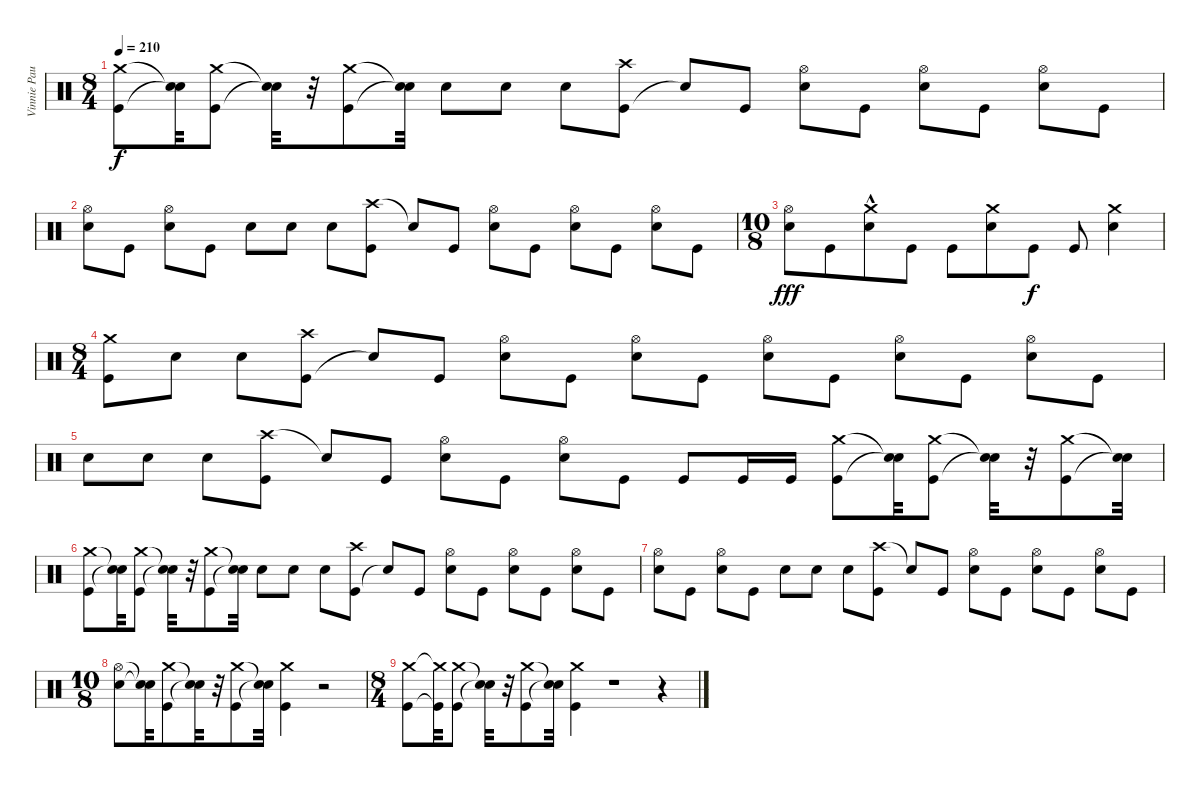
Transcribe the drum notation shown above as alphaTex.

\track ("Vinnie Paul (Drums)" "Vinnie Pau") {instrument percussion}
\staff {score}
\articulation defaults
\ts (8 4)
\tempo 210
\clef neutral
\ks c
("Kick (hit)" "Crash medium (hit)").8{dy f} ("Snare (hit)"{t} "Snare (hit)"{t}).32 ("Kick (hit)" "Crash medium (hit)").8 ("Snare (hit)"{t} "Snare (hit)"{t}).32 r.32 ("Kick (hit)" "Crash medium (hit)").8 ("Snare (hit)"{t} "Snare (hit)"{t}).32 "Electric Snare (hit)".8 "Electric Snare (hit)".8 "Electric Snare (hit)".8 ("Kick (hit)" "Crash high (hit)").8 "Snare (hit)"{t}.8 "Kick (hit)".8 ("Hi-Hat (open)" "Electric Snare (hit)").8 "Kick (hit)".8 ("Hi-Hat (open)" "Electric Snare (hit)").8 "Kick (hit)".8 ("Hi-Hat (open)" "Electric Snare (hit)").8 "Kick (hit)".8 |
("Hi-Hat (open)" "Electric Snare (hit)").8 "Kick (hit)".8 ("Hi-Hat (open)" "Electric Snare (hit)").8 "Kick (hit)".8 "Electric Snare (hit)".8 "Electric Snare (hit)".8 "Electric Snare (hit)".8 ("Crash high (hit)" "Kick (hit)").8 "Snare (hit)"{t}.8 "Kick (hit)".8 ("Hi-Hat (open)" "Electric Snare (hit)").8 "Kick (hit)".8 ("Hi-Hat (open)" "Electric Snare (hit)").8 "Kick (hit)".8 ("Hi-Hat (open)" "Electric Snare (hit)").8 "Kick (hit)".8 |
\ts (10 8)
("Hi-Hat (open)" "Electric Snare (hit)").8{dy fff} "Kick (hit)".8 ("Crash medium (hit)"{hac} "Electric Snare (hit)").8 "Kick (hit)".8 "Kick (hit)".8 ("Crash medium (hit)" "Electric Snare (hit)").8 "Kick (hit)".8{dy f} "Kick (hit)".8 ("Crash medium (hit)" "Electric Snare (hit)").4 |
\ts (8 4)
("Kick (hit)" "Crash medium (hit)").8 "Electric Snare (hit)".8 "Electric Snare (hit)".8 ("Kick (hit)" "Crash high (hit)").8 "Snare (hit)"{t}.8 "Kick (hit)".8 ("Hi-Hat (open)" "Electric Snare (hit)").8 "Kick (hit)".8 ("Hi-Hat (open)" "Electric Snare (hit)").8 "Kick (hit)".8 ("Hi-Hat (open)" "Electric Snare (hit)").8 "Kick (hit)".8 ("Hi-Hat (open)" "Electric Snare (hit)").8 "Kick (hit)".8 ("Hi-Hat (open)" "Electric Snare (hit)").8 "Kick (hit)".8 |
"Electric Snare (hit)".8 "Electric Snare (hit)".8 "Electric Snare (hit)".8 ("Crash high (hit)" "Kick (hit)").8 "Snare (hit)"{t}.8 "Kick (hit)".8 ("Hi-Hat (open)" "Electric Snare (hit)").8 "Kick (hit)".8 ("Hi-Hat (open)" "Electric Snare (hit)").8 "Kick (hit)".8 "Kick (hit)".8 "Kick (hit)".16 "Kick (hit)".16 ("Crash medium (hit)" "Kick (hit)").8 ("Snare (hit)"{t} "Snare (hit)"{t}).32 ("Crash medium (hit)" "Kick (hit)").8 ("Snare (hit)"{t} "Snare (hit)"{t}).32 r.32 ("Crash medium (hit)" "Kick (hit)").8 ("Snare (hit)"{t} "Snare (hit)"{t}).32 |
("Kick (hit)" "Crash medium (hit)").8 ("Snare (hit)"{t} "Snare (hit)"{t}).32 ("Kick (hit)" "Crash medium (hit)").8 ("Snare (hit)"{t} "Snare (hit)"{t}).32 r.32 ("Kick (hit)" "Crash medium (hit)").8 ("Snare (hit)"{t} "Snare (hit)"{t}).32 "Electric Snare (hit)".8 "Electric Snare (hit)".8 "Electric Snare (hit)".8 ("Kick (hit)" "Crash high (hit)").8 "Snare (hit)"{t}.8 "Kick (hit)".8 ("Hi-Hat (open)" "Electric Snare (hit)").8 "Kick (hit)".8 ("Hi-Hat (open)" "Electric Snare (hit)").8 "Kick (hit)".8 ("Hi-Hat (open)" "Electric Snare (hit)").8 "Kick (hit)".8 |
("Hi-Hat (open)" "Electric Snare (hit)").8 "Kick (hit)".8 ("Hi-Hat (open)" "Electric Snare (hit)").8 "Kick (hit)".8 "Electric Snare (hit)".8 "Electric Snare (hit)".8 "Electric Snare (hit)".8 ("Crash high (hit)" "Kick (hit)").8 "Snare (hit)"{t}.8 "Kick (hit)".8 ("Hi-Hat (open)" "Electric Snare (hit)").8 "Kick (hit)".8 ("Hi-Hat (open)" "Electric Snare (hit)").8 "Kick (hit)".8 ("Hi-Hat (open)" "Electric Snare (hit)").8 "Kick (hit)".8 |
\ts (10 8)
("Hi-Hat (open)" "Electric Snare (hit)").8 ("Snare (hit)"{t} "Snare (hit)"{t}).32 ("Kick (hit)" "Crash medium (hit)").8 ("Snare (hit)"{t} "Snare (hit)"{t}).32 r.32 ("Kick (hit)" "Crash medium (hit)").8 ("Snare (hit)"{t} "Snare (hit)"{t}).32 ("Kick (hit)" "Crash medium (hit)").4 r.2 |
\ts (8 4)
("Kick (hit)" "Crash medium (hit)").8 ("Kick (hit)"{t} "Crash medium (hit)"{t}).32 ("Kick (hit)" "Crash medium (hit)").8 ("Snare (hit)"{t} "Snare (hit)"{t}).32 r.32 ("Kick (hit)" "Crash medium (hit)").8 ("Snare (hit)"{t} "Snare (hit)"{t}).32 ("Kick (hit)" "Crash medium (hit)").4 r.1 r.4
